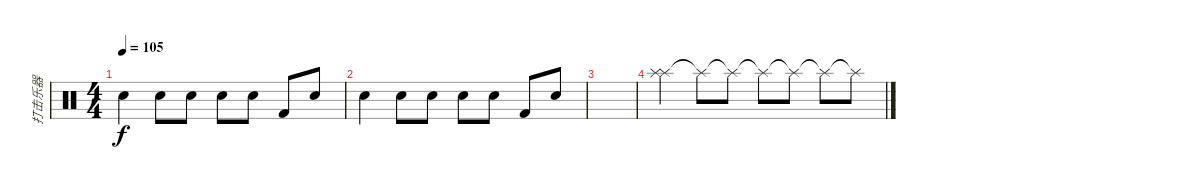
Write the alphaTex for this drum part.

\track ("打击乐器" "打击乐器") {instrument percussion}
\staff {score}
\articulation defaults
\ts (4 4)
\tempo 105
\clef neutral
\ks c "Snare (hit) 2".4{dy f} "Snare (hit) 2".8 "Electric Snare (hit)".8 "Hand Clap (hit)".8 "Snare (hit) 2".8 "Kick (hit) 2".8 "Snare (hit) 2".8
|
"Snare (hit) 2".4 "Snare (hit) 2".8 "Electric Snare (hit)".8 "Hand Clap (hit)".8 "Snare (hit) 2".8 "Kick (hit) 2".8 "Snare (hit) 2".8 |
|
("Splash (hit)" "Splash (hit)"{tr (55 16)}).4 "Splash (hit)"{t}.8 "Splash (hit)"{t}.8 "Splash (hit)"{t}.8 "Splash (hit)"{t}.8 "Splash (hit)"{t}.8 "Splash (hit)"{t}.8
